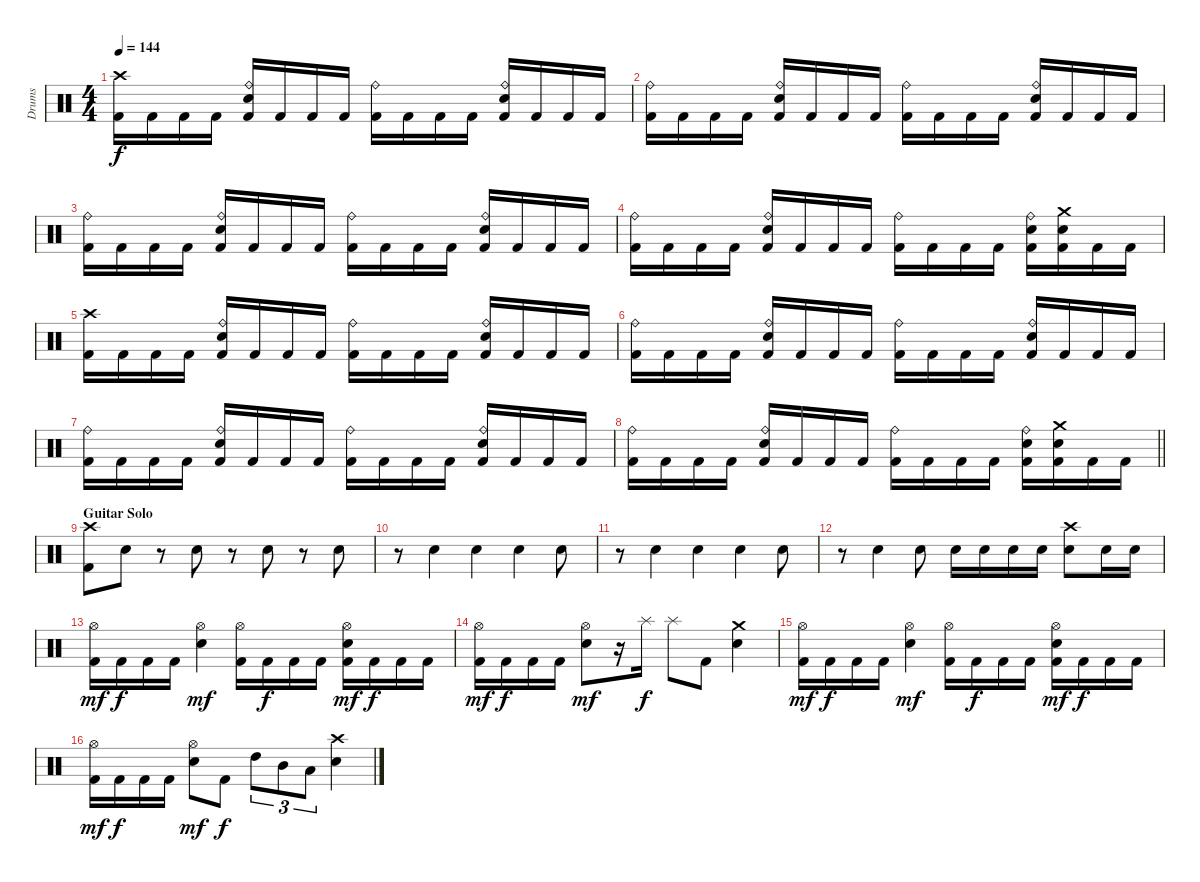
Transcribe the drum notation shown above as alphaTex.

\track ("Drums" "Drums") {instrument percussion}
\staff {score}
\articulation defaults
\ts (4 4)
\tempo 144
\clef neutral
\ks c
("Crash high (hit)" "Kick (hit) 2").16{dy f} "Kick (hit) 2".16 "Kick (hit) 2".16 "Kick (hit) 2".16 ("Ride (bell)" "Electric Snare (hit)" "Kick (hit) 2").16 "Kick (hit) 2".16 "Kick (hit) 2".16 "Kick (hit) 2".16 ("Ride (bell)" "Kick (hit) 2").16 "Kick (hit) 2".16 "Kick (hit) 2".16 "Kick (hit) 2".16 ("Ride (bell)" "Electric Snare (hit)" "Kick (hit) 2").16 "Kick (hit) 2".16 "Kick (hit) 2".16 "Kick (hit) 2".16 |
("Ride (bell)" "Kick (hit) 2").16 "Kick (hit) 2".16 "Kick (hit) 2".16 "Kick (hit) 2".16 ("Ride (bell)" "Electric Snare (hit)" "Kick (hit) 2").16 "Kick (hit) 2".16 "Kick (hit) 2".16 "Kick (hit) 2".16 ("Ride (bell)" "Kick (hit) 2").16 "Kick (hit) 2".16 "Kick (hit) 2".16 "Kick (hit) 2".16 ("Ride (bell)" "Electric Snare (hit)" "Kick (hit) 2").16 "Kick (hit) 2".16 "Kick (hit) 2".16 "Kick (hit) 2".16 |
("Ride (bell)" "Kick (hit) 2").16 "Kick (hit) 2".16 "Kick (hit) 2".16 "Kick (hit) 2".16 ("Ride (bell)" "Electric Snare (hit)" "Kick (hit) 2").16 "Kick (hit) 2".16 "Kick (hit) 2".16 "Kick (hit) 2".16 ("Ride (bell)" "Kick (hit) 2").16 "Kick (hit) 2".16 "Kick (hit) 2".16 "Kick (hit) 2".16 ("Ride (bell)" "Electric Snare (hit)" "Kick (hit) 2").16 "Kick (hit) 2".16 "Kick (hit) 2".16 "Kick (hit) 2".16 |
("Ride (bell)" "Kick (hit) 2").16 "Kick (hit) 2".16 "Kick (hit) 2".16 "Kick (hit) 2".16 ("Ride (bell)" "Electric Snare (hit)" "Kick (hit) 2").16 "Kick (hit) 2".16 "Kick (hit) 2".16 "Kick (hit) 2".16 ("Ride (bell)" "Kick (hit) 2").16 "Kick (hit) 2".16 "Kick (hit) 2".16 "Kick (hit) 2".16 ("Ride (bell)" "Electric Snare (hit)" "Kick (hit) 2").16 ("Crash medium (hit)" "Electric Snare (hit)" "Kick (hit) 2").16 "Kick (hit) 2".16 "Kick (hit) 2".16 |
("Crash high (hit)" "Kick (hit) 2").16 "Kick (hit) 2".16 "Kick (hit) 2".16 "Kick (hit) 2".16 ("Ride (bell)" "Electric Snare (hit)" "Kick (hit) 2").16 "Kick (hit) 2".16 "Kick (hit) 2".16 "Kick (hit) 2".16 ("Ride (bell)" "Kick (hit) 2").16 "Kick (hit) 2".16 "Kick (hit) 2".16 "Kick (hit) 2".16 ("Ride (bell)" "Electric Snare (hit)" "Kick (hit) 2").16 "Kick (hit) 2".16 "Kick (hit) 2".16 "Kick (hit) 2".16 |
("Ride (bell)" "Kick (hit) 2").16 "Kick (hit) 2".16 "Kick (hit) 2".16 "Kick (hit) 2".16 ("Ride (bell)" "Electric Snare (hit)" "Kick (hit) 2").16 "Kick (hit) 2".16 "Kick (hit) 2".16 "Kick (hit) 2".16 ("Ride (bell)" "Kick (hit) 2").16 "Kick (hit) 2".16 "Kick (hit) 2".16 "Kick (hit) 2".16 ("Ride (bell)" "Electric Snare (hit)" "Kick (hit) 2").16 "Kick (hit) 2".16 "Kick (hit) 2".16 "Kick (hit) 2".16 |
("Ride (bell)" "Kick (hit) 2").16 "Kick (hit) 2".16 "Kick (hit) 2".16 "Kick (hit) 2".16 ("Ride (bell)" "Electric Snare (hit)" "Kick (hit) 2").16 "Kick (hit) 2".16 "Kick (hit) 2".16 "Kick (hit) 2".16 ("Ride (bell)" "Kick (hit) 2").16 "Kick (hit) 2".16 "Kick (hit) 2".16 "Kick (hit) 2".16 ("Ride (bell)" "Electric Snare (hit)" "Kick (hit) 2").16 "Kick (hit) 2".16 "Kick (hit) 2".16 "Kick (hit) 2".16 |
\barLineRight lightlight
("Ride (bell)" "Kick (hit) 2").16 "Kick (hit) 2".16 "Kick (hit) 2".16 "Kick (hit) 2".16 ("Ride (bell)" "Electric Snare (hit)" "Kick (hit) 2").16 "Kick (hit) 2".16 "Kick (hit) 2".16 "Kick (hit) 2".16 ("Ride (bell)" "Kick (hit) 2").16 "Kick (hit) 2".16 "Kick (hit) 2".16 "Kick (hit) 2".16 ("Ride (bell)" "Electric Snare (hit)" "Kick (hit) 2").16 ("Crash medium (hit)" "Electric Snare (hit)" "Kick (hit) 2").16 "Kick (hit) 2".16 "Kick (hit) 2".16 |
\section ("" "Guitar Solo")
("Crash high (hit)" "Kick (hit) 2").8 "Electric Snare (hit)".8 r.8 "Electric Snare (hit)".8 r.8 "Electric Snare (hit)".8 r.8 "Electric Snare (hit)".8 |
r.8 "Electric Snare (hit)".4 "Electric Snare (hit)".4 "Electric Snare (hit)".4 "Electric Snare (hit)".8 |
r.8 "Electric Snare (hit)".4 "Electric Snare (hit)".4 "Electric Snare (hit)".4 "Electric Snare (hit)".8 |
r.8 "Electric Snare (hit)".4 "Electric Snare (hit)".8 "Electric Snare (hit)".16 "Electric Snare (hit)".16 "Electric Snare (hit)".16 "Electric Snare (hit)".16 ("Crash high (hit)" "Electric Snare (hit)").8 "Electric Snare (hit)".16 "Electric Snare (hit)".16 |
("Hi-Hat (open)" "Kick (hit) 2").16{dy mf} "Kick (hit) 2".16{dy f} "Kick (hit) 2".16 "Kick (hit) 2".16 ("Hi-Hat (open)" "Electric Snare (hit)").4{dy mf} ("Hi-Hat (open)" "Kick (hit) 2").16 "Kick (hit) 2".16{dy f} "Kick (hit) 2".16 "Kick (hit) 2".16 ("Hi-Hat (open)" "Electric Snare (hit)" "Kick (hit) 2").16{dy mf} "Kick (hit) 2".16{dy f} "Kick (hit) 2".16 "Kick (hit) 2".16 |
("Hi-Hat (open)" "Kick (hit) 2").16{dy mf} "Kick (hit) 2".16{dy f} "Kick (hit) 2".16 "Kick (hit) 2".16 ("Hi-Hat (open)" "Electric Snare (hit)").8{dy mf} r.16 "Splash (hit)".16{dy f} "Splash (hit)".8 "Kick (hit) 2".8 ("Crash medium (hit)" "Electric Snare (hit)").4 |
("Hi-Hat (open)" "Kick (hit) 2").16{dy mf} "Kick (hit) 2".16{dy f} "Kick (hit) 2".16 "Kick (hit) 2".16 ("Hi-Hat (open)" "Electric Snare (hit)").4{dy mf} ("Hi-Hat (open)" "Kick (hit) 2").16 "Kick (hit) 2".16{dy f} "Kick (hit) 2".16 "Kick (hit) 2".16 ("Hi-Hat (open)" "Electric Snare (hit)" "Kick (hit) 2").16{dy mf} "Kick (hit) 2".16{dy f} "Kick (hit) 2".16 "Kick (hit) 2".16 |
("Hi-Hat (open)" "Kick (hit) 2").16{dy mf} "Kick (hit) 2".16{dy f} "Kick (hit) 2".16 "Kick (hit) 2".16 ("Hi-Hat (open)" "Electric Snare (hit)").8{dy mf} "Kick (hit) 2".8{dy f} "High Tom (hit)".8{tu (3 2)} "Mid Tom (hit)".8{tu (3 2)} "Low Tom (hit)".8{tu (3 2)} ("Crash high (hit)" "Electric Snare (hit)").4
